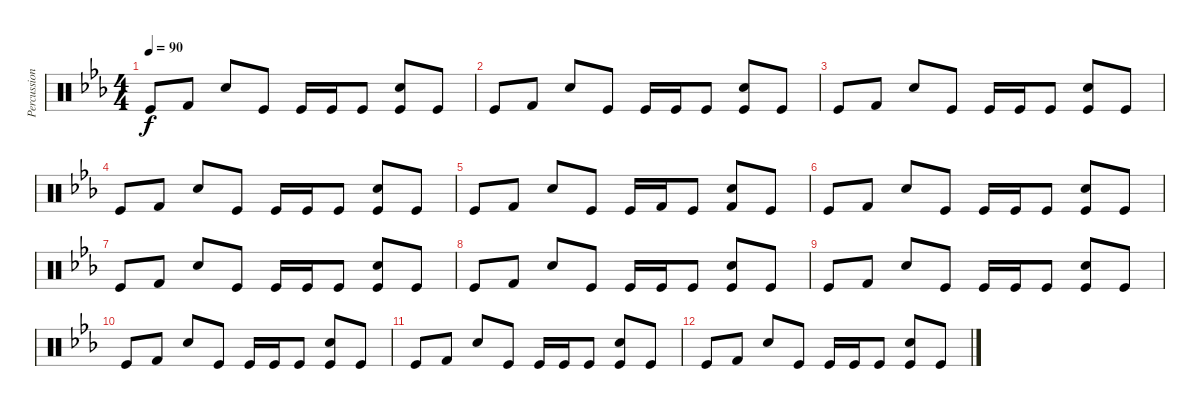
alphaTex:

\track ("Percussion" "Percussion") {instrument percussion}
\staff {score}
\articulation defaults
\ts (4 4)
\tempo 90
\clef neutral
\ks cminor "Kick (hit)".8{dy f} "Kick (hit) 2".8 "Electric Snare (hit)".8 "Kick (hit)".8 "Kick (hit)".16 "Kick (hit)".16 "Kick (hit)".8
("Electric Snare (hit)" "Kick (hit)").8 "Kick (hit)".8 |
"Kick (hit)".8 "Kick (hit) 2".8 "Electric Snare (hit)".8 "Kick (hit)".8 "Kick (hit)".16 "Kick (hit)".16 "Kick (hit)".8 ("Electric Snare (hit)" "Kick (hit)").8 "Kick (hit)".8 |
"Kick (hit)".8 "Kick (hit) 2".8 "Electric Snare (hit)".8 "Kick (hit)".8 "Kick (hit)".16 "Kick (hit)".16 "Kick (hit)".8 ("Electric Snare (hit)" "Kick (hit)").8 "Kick (hit)".8 |
"Kick (hit)".8 "Kick (hit) 2".8 "Electric Snare (hit)".8 "Kick (hit)".8 "Kick (hit)".16 "Kick (hit)".16 "Kick (hit)".8 ("Electric Snare (hit)" "Kick (hit)").8 "Kick (hit)".8 |
"Kick (hit)".8 "Kick (hit) 2".8 "Electric Snare (hit)".8 "Kick (hit)".8 "Kick (hit)".16 "Kick (hit) 2".16 "Kick (hit)".8 ("Electric Snare (hit)" "Kick (hit) 2").8 "Kick (hit)".8 |
"Kick (hit)".8 "Kick (hit) 2".8 "Electric Snare (hit)".8 "Kick (hit)".8 "Kick (hit)".16 "Kick (hit)".16 "Kick (hit)".8 ("Electric Snare (hit)" "Kick (hit)").8 "Kick (hit)".8 |
"Kick (hit)".8 "Kick (hit) 2".8 "Electric Snare (hit)".8 "Kick (hit)".8 "Kick (hit)".16 "Kick (hit)".16 "Kick (hit)".8 ("Electric Snare (hit)" "Kick (hit)").8 "Kick (hit)".8 |
"Kick (hit)".8 "Kick (hit) 2".8 "Electric Snare (hit)".8 "Kick (hit)".8 "Kick (hit)".16 "Kick (hit)".16 "Kick (hit)".8 ("Electric Snare (hit)" "Kick (hit)").8 "Kick (hit)".8 |
"Kick (hit)".8 "Kick (hit) 2".8 "Electric Snare (hit)".8 "Kick (hit)".8 "Kick (hit)".16 "Kick (hit)".16 "Kick (hit)".8 ("Electric Snare (hit)" "Kick (hit)").8 "Kick (hit)".8 |
"Kick (hit)".8 "Kick (hit) 2".8 "Electric Snare (hit)".8 "Kick (hit)".8 "Kick (hit)".16 "Kick (hit)".16 "Kick (hit)".8 ("Electric Snare (hit)" "Kick (hit)").8 "Kick (hit)".8 |
"Kick (hit)".8 "Kick (hit) 2".8 "Electric Snare (hit)".8 "Kick (hit)".8 "Kick (hit)".16 "Kick (hit)".16 "Kick (hit)".8 ("Electric Snare (hit)" "Kick (hit)").8 "Kick (hit)".8 |
"Kick (hit)".8 "Kick (hit) 2".8 "Electric Snare (hit)".8 "Kick (hit)".8 "Kick (hit)".16 "Kick (hit)".16 "Kick (hit)".8 ("Electric Snare (hit)" "Kick (hit)").8 "Kick (hit)".8
